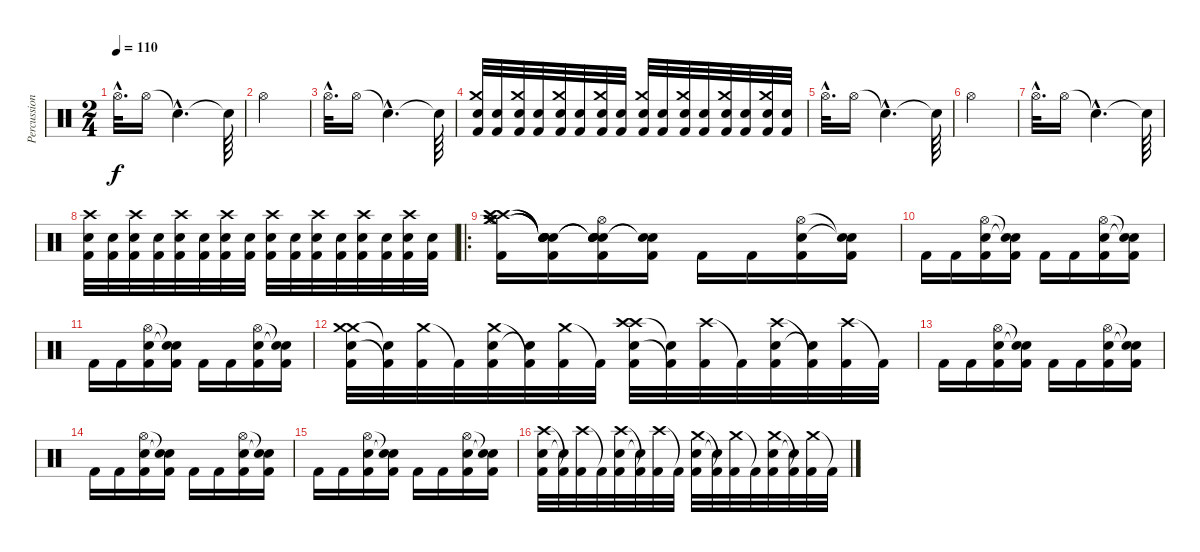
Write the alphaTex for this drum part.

\track ("Percussion" "Percussion") {instrument percussion}
\staff {score}
\articulation defaults
\ts (2 4)
\tempo 110
\clef neutral
\ks c "Hi-Hat (open)"{hac}.32{d dy f} "Hi-Hat (open)".16 "Snare (hit)"{hac t}.4{d} "Snare (hit)"{t}.64
|
"Hi-Hat (open)".2 |
"Hi-Hat (open)"{hac}.32{d} "Hi-Hat (open)".16 "Snare (hit)"{hac t}.4{d} "Snare (hit)"{t}.64 |
("Snare (hit) 2" "Crash medium (hit)" "Kick (hit) 2").32 ("Snare (hit) 2" "Kick (hit) 2").32 ("Snare (hit) 2" "Crash medium (hit)" "Kick (hit) 2").32 ("Snare (hit) 2" "Kick (hit) 2").32 ("Snare (hit) 2" "Crash medium (hit)" "Kick (hit) 2").32 ("Snare (hit) 2" "Kick (hit) 2").32 ("Snare (hit) 2" "Crash medium (hit)" "Kick (hit) 2").32 ("Snare (hit) 2" "Kick (hit) 2").32 ("Snare (hit) 2" "Crash medium (hit)" "Kick (hit) 2").32 ("Snare (hit) 2" "Kick (hit) 2").32 ("Snare (hit) 2" "Crash medium (hit)" "Kick (hit) 2").32 ("Snare (hit) 2" "Kick (hit) 2").32 ("Snare (hit) 2" "Crash medium (hit)" "Kick (hit) 2").32 ("Snare (hit) 2" "Kick (hit) 2").32 ("Snare (hit) 2" "Crash medium (hit)" "Kick (hit) 2").32 ("Snare (hit) 2" "Kick (hit) 2").32 |
"Hi-Hat (open)"{hac}.32{d} "Hi-Hat (open)".16 "Snare (hit)"{hac t}.4{d} "Snare (hit)"{t}.64 |
"Hi-Hat (open)".2 |
"Hi-Hat (open)"{hac}.32{d} "Hi-Hat (open)".16 "Snare (hit)"{hac t}.4{d} "Snare (hit)"{t}.64 |
("Snare (hit) 2" "Crash high (hit)" "Kick (hit) 2").32 ("Snare (hit) 2" "Kick (hit) 2").32 ("Snare (hit) 2" "Crash high (hit)" "Kick (hit) 2").32 ("Snare (hit) 2" "Kick (hit) 2").32 ("Snare (hit) 2" "Crash high (hit)" "Kick (hit) 2").32 ("Snare (hit) 2" "Kick (hit) 2").32 ("Snare (hit) 2" "Crash high (hit)" "Kick (hit) 2").32 ("Snare (hit) 2" "Kick (hit) 2").32 ("Snare (hit) 2" "Crash high (hit)" "Kick (hit) 2").32 ("Snare (hit) 2" "Kick (hit) 2").32 ("Snare (hit) 2" "Crash high (hit)" "Kick (hit) 2").32 ("Snare (hit) 2" "Kick (hit) 2").32 ("Snare (hit) 2" "Crash high (hit)" "Kick (hit) 2").32 ("Snare (hit) 2" "Kick (hit) 2").32 ("Snare (hit) 2" "Crash high (hit)" "Kick (hit) 2").32 ("Snare (hit) 2" "Kick (hit) 2").32 |
\ro
("Crash high (hit)" "Crash medium (hit)" "Crash high (hit)" "Crash medium (hit)" "Hi-Hat (open)" "Kick (hit) 2").16 ("Snare (hit)"{t} "Snare (hit)"{t} "Snare (hit)"{t} "Snare (hit)"{t} "Snare (hit)"{t} "Kick (hit) 2").16 ("Snare (hit)"{t} "Snare (hit)"{t} "Snare (hit)"{t} "Hi-Hat (open)" "Snare (hit) 2" "Kick (hit) 2").16 ("Snare (hit)"{t} "Snare (hit)"{t} "Kick (hit) 2").16 "Kick (hit) 2".16 "Kick (hit) 2".16 ("Hi-Hat (open)" "Snare (hit) 2" "Kick (hit) 2").16 ("Snare (hit)"{t} "Snare (hit)"{t} "Kick (hit) 2").16 |
"Kick (hit) 2".16 "Kick (hit) 2".16 ("Hi-Hat (open)" "Snare (hit) 2" "Kick (hit) 2").16 ("Snare (hit)"{t} "Snare (hit)"{t} "Kick (hit) 2").16 "Kick (hit) 2".16 "Kick (hit) 2".16 ("Hi-Hat (open)" "Snare (hit) 2" "Kick (hit) 2").16 ("Snare (hit)"{t} "Snare (hit)"{t} "Kick (hit) 2").16 |
"Kick (hit) 2".16 "Kick (hit) 2".16 ("Hi-Hat (open)" "Snare (hit) 2" "Kick (hit) 2").16 ("Snare (hit)"{t} "Snare (hit)"{t} "Kick (hit) 2").16 "Kick (hit) 2".16 "Kick (hit) 2".16 ("Hi-Hat (open)" "Snare (hit) 2" "Kick (hit) 2").16 ("Snare (hit)"{t} "Snare (hit)"{t} "Kick (hit) 2").16 |
("Crash medium (hit)" "Snare (hit) 2" "Crash medium (hit)" "Kick (hit) 2").32 ("Snare (hit) 2"{t} "Kick (hit) 2"{t}).32 ("Crash medium (hit)" "Kick (hit) 2").32 "Kick (hit) 2"{t}.32 ("Snare (hit) 2" "Crash medium (hit)" "Kick (hit) 2").32 ("Snare (hit) 2"{t} "Kick (hit) 2"{t}).32 ("Crash medium (hit)" "Kick (hit) 2").32 "Kick (hit) 2"{t}.32 ("Crash high (hit)" "Snare (hit) 2" "Crash high (hit)" "Kick (hit) 2").32 ("Snare (hit) 2"{t} "Kick (hit) 2"{t}).32 ("Crash high (hit)" "Kick (hit) 2").32 "Kick (hit) 2"{t}.32 ("Snare (hit) 2" "Crash high (hit)" "Kick (hit) 2").32 ("Snare (hit) 2"{t} "Kick (hit) 2"{t}).32 ("Crash high (hit)" "Kick (hit) 2").32 "Kick (hit) 2"{t}.32 |
"Kick (hit) 2".16 "Kick (hit) 2".16 ("Hi-Hat (open)" "Snare (hit) 2" "Kick (hit) 2").16 ("Snare (hit)"{t} "Snare (hit)"{t} "Kick (hit) 2").16 "Kick (hit) 2".16 "Kick (hit) 2".16 ("Hi-Hat (open)" "Snare (hit) 2" "Kick (hit) 2").16 ("Snare (hit)"{t} "Snare (hit)"{t} "Kick (hit) 2").16 |
"Kick (hit) 2".16 "Kick (hit) 2".16 ("Hi-Hat (open)" "Snare (hit) 2" "Kick (hit) 2").16 ("Snare (hit)"{t} "Snare (hit)"{t} "Kick (hit) 2").16 "Kick (hit) 2".16 "Kick (hit) 2".16 ("Hi-Hat (open)" "Snare (hit) 2" "Kick (hit) 2").16 ("Snare (hit)"{t} "Snare (hit)"{t} "Kick (hit) 2").16 |
"Kick (hit) 2".16 "Kick (hit) 2".16 ("Hi-Hat (open)" "Snare (hit) 2" "Kick (hit) 2").16 ("Snare (hit)"{t} "Snare (hit)"{t} "Kick (hit) 2").16 "Kick (hit) 2".16 "Kick (hit) 2".16 ("Hi-Hat (open)" "Snare (hit) 2" "Kick (hit) 2").16 ("Snare (hit)"{t} "Snare (hit)"{t} "Kick (hit) 2").16 |
("Snare (hit) 2" "Crash high (hit)" "Kick (hit) 2").32 ("Snare (hit) 2"{t} "Kick (hit) 2"{t}).32 ("Crash high (hit)" "Kick (hit) 2").32 "Kick (hit) 2"{t}.32 ("Snare (hit) 2" "Crash high (hit)" "Kick (hit) 2").32 ("Snare (hit) 2"{t} "Kick (hit) 2"{t}).32 ("Crash high (hit)" "Kick (hit) 2").32 "Kick (hit) 2"{t}.32 ("Snare (hit) 2" "Crash medium (hit)" "Kick (hit) 2").32 ("Snare (hit) 2"{t} "Kick (hit) 2"{t}).32 ("Crash medium (hit)" "Kick (hit) 2").32 "Kick (hit) 2"{t}.32 ("Snare (hit) 2" "Crash medium (hit)" "Kick (hit) 2").32 ("Snare (hit) 2"{t} "Kick (hit) 2"{t}).32 ("Crash medium (hit)" "Kick (hit) 2").32 "Kick (hit) 2"{t}.32
